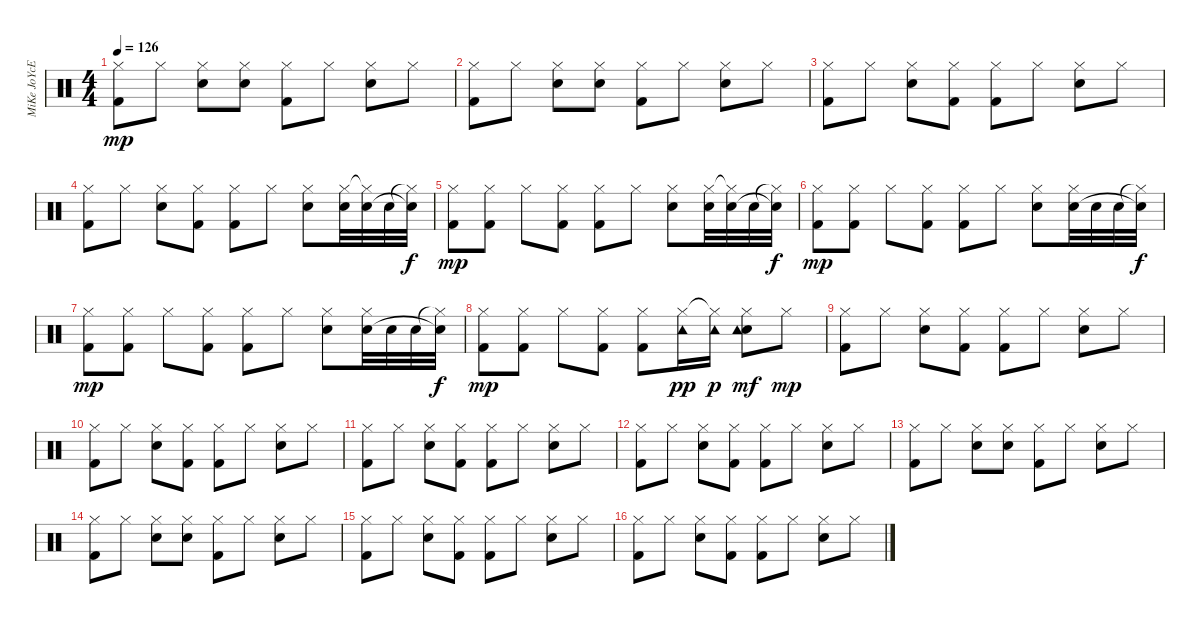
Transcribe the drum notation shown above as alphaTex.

\track ("MiKe JoYcE" "MiKe JoYcE") {instrument percussion}
\staff {score}
\articulation defaults
\ts (4 4)
\tempo 126
\clef neutral
\ks c
("Hi-Hat (closed)" "Kick (hit) 2").8{dy mp} "Hi-Hat (closed)".8 ("Hi-Hat (closed)" "Electric Snare (hit)").8 ("Hi-Hat (closed)" "Electric Snare (hit)").8 ("Hi-Hat (closed)" "Kick (hit) 2").8 "Hi-Hat (closed)".8 ("Hi-Hat (closed)" "Electric Snare (hit)").8 "Hi-Hat (closed)".8 |
("Hi-Hat (closed)" "Kick (hit) 2").8 "Hi-Hat (closed)".8 ("Hi-Hat (closed)" "Electric Snare (hit)").8 ("Hi-Hat (closed)" "Electric Snare (hit)").8 ("Hi-Hat (closed)" "Kick (hit) 2").8 "Hi-Hat (closed)".8 ("Hi-Hat (closed)" "Electric Snare (hit)").8 "Hi-Hat (closed)".8 |
("Hi-Hat (closed)" "Kick (hit) 2").8 "Hi-Hat (closed)".8 ("Hi-Hat (closed)" "Electric Snare (hit)").8 ("Hi-Hat (closed)" "Kick (hit) 2").8 ("Hi-Hat (closed)" "Kick (hit) 2").8 "Hi-Hat (closed)".8 ("Hi-Hat (closed)" "Electric Snare (hit)").8 "Hi-Hat (closed)".8 |
("Hi-Hat (closed)" "Kick (hit) 2").8 "Hi-Hat (closed)".8 ("Hi-Hat (closed)" "Electric Snare (hit)").8 ("Hi-Hat (closed)" "Kick (hit) 2").8 ("Hi-Hat (closed)" "Kick (hit) 2").8 "Hi-Hat (closed)".8 ("Hi-Hat (closed)" "Electric Snare (hit)").8 ("Hi-Hat (closed)" "Electric Snare (hit)").32 ("Hi-Hat (closed)"{t} "Electric Snare (hit)").32 "Electric Snare (hit)".32 ("Hi-Hat (closed)"{t} "Electric Snare (hit)"{t}).32{dy f} |
("Hi-Hat (closed)" "Kick (hit) 2").8{dy mp} ("Hi-Hat (closed)" "Kick (hit) 2").8 "Hi-Hat (closed)".8 ("Hi-Hat (closed)" "Kick (hit) 2").8 ("Hi-Hat (closed)" "Kick (hit) 2").8 "Hi-Hat (closed)".8 ("Hi-Hat (closed)" "Electric Snare (hit)").8 ("Hi-Hat (closed)" "Electric Snare (hit)").32 ("Hi-Hat (closed)"{t} "Electric Snare (hit)").32 "Electric Snare (hit)".32 ("Hi-Hat (closed)"{t} "Electric Snare (hit)"{t}).32{dy f} |
("Hi-Hat (closed)" "Kick (hit) 2").8{dy mp} ("Hi-Hat (closed)" "Kick (hit) 2").8 "Hi-Hat (closed)".8 ("Hi-Hat (closed)" "Kick (hit) 2").8 ("Hi-Hat (closed)" "Kick (hit) 2").8 "Hi-Hat (closed)".8 ("Hi-Hat (closed)" "Electric Snare (hit)").8 ("Hi-Hat (closed)" "Electric Snare (hit)").32 "Electric Snare (hit)".32 "Electric Snare (hit)".32 ("Hi-Hat (closed)"{t} "Electric Snare (hit)"{t}).32{dy f} |
("Hi-Hat (closed)" "Kick (hit) 2").8{dy mp} ("Hi-Hat (closed)" "Kick (hit) 2").8 "Hi-Hat (closed)".8 ("Hi-Hat (closed)" "Kick (hit) 2").8 ("Hi-Hat (closed)" "Kick (hit) 2").8 "Hi-Hat (closed)".8 ("Hi-Hat (closed)" "Electric Snare (hit)").8 ("Hi-Hat (closed)" "Electric Snare (hit)").32 "Electric Snare (hit)".32 "Electric Snare (hit)".32 ("Hi-Hat (closed)"{t} "Electric Snare (hit)"{t}).32{dy f} |
("Hi-Hat (closed)" "Kick (hit) 2").8{dy mp} ("Hi-Hat (closed)" "Kick (hit) 2").8 "Hi-Hat (closed)".8 ("Hi-Hat (closed)" "Kick (hit) 2").8 ("Hi-Hat (closed)" "Kick (hit) 2").8 ("Hi-Hat (closed)" "Tambourine (hit)").16{dy pp} ("Hi-Hat (closed)"{t} "Tambourine (hit)").16{dy p} ("Hi-Hat (closed)" "Electric Snare (hit)" "Tambourine (hit)").8{dy mf} "Hi-Hat (closed)".8{dy mp} |
("Hi-Hat (closed)" "Kick (hit) 2").8 "Hi-Hat (closed)".8 ("Hi-Hat (closed)" "Electric Snare (hit)").8 ("Hi-Hat (closed)" "Kick (hit) 2").8 ("Hi-Hat (closed)" "Kick (hit) 2").8 "Hi-Hat (closed)".8 ("Hi-Hat (closed)" "Electric Snare (hit)").8 "Hi-Hat (closed)".8 |
("Hi-Hat (closed)" "Kick (hit) 2").8 "Hi-Hat (closed)".8 ("Hi-Hat (closed)" "Electric Snare (hit)").8 ("Hi-Hat (closed)" "Kick (hit) 2").8 ("Hi-Hat (closed)" "Kick (hit) 2").8 "Hi-Hat (closed)".8 ("Hi-Hat (closed)" "Electric Snare (hit)").8 "Hi-Hat (closed)".8 |
("Hi-Hat (closed)" "Kick (hit) 2").8 "Hi-Hat (closed)".8 ("Hi-Hat (closed)" "Electric Snare (hit)").8 ("Hi-Hat (closed)" "Kick (hit) 2").8 ("Hi-Hat (closed)" "Kick (hit) 2").8 "Hi-Hat (closed)".8 ("Hi-Hat (closed)" "Electric Snare (hit)").8 "Hi-Hat (closed)".8 |
("Hi-Hat (closed)" "Kick (hit) 2").8 "Hi-Hat (closed)".8 ("Hi-Hat (closed)" "Electric Snare (hit)").8 ("Hi-Hat (closed)" "Kick (hit) 2").8 ("Hi-Hat (closed)" "Kick (hit) 2").8 "Hi-Hat (closed)".8 ("Hi-Hat (closed)" "Electric Snare (hit)").8 "Hi-Hat (closed)".8 |
("Hi-Hat (closed)" "Kick (hit) 2").8 "Hi-Hat (closed)".8 ("Hi-Hat (closed)" "Electric Snare (hit)").8 ("Hi-Hat (closed)" "Electric Snare (hit)").8 ("Hi-Hat (closed)" "Kick (hit) 2").8 "Hi-Hat (closed)".8 ("Hi-Hat (closed)" "Electric Snare (hit)").8 "Hi-Hat (closed)".8 |
("Hi-Hat (closed)" "Kick (hit) 2").8 "Hi-Hat (closed)".8 ("Hi-Hat (closed)" "Electric Snare (hit)").8 ("Hi-Hat (closed)" "Electric Snare (hit)").8 ("Hi-Hat (closed)" "Kick (hit) 2").8 "Hi-Hat (closed)".8 ("Hi-Hat (closed)" "Electric Snare (hit)").8 "Hi-Hat (closed)".8 |
("Hi-Hat (closed)" "Kick (hit) 2").8 "Hi-Hat (closed)".8 ("Hi-Hat (closed)" "Electric Snare (hit)").8 ("Hi-Hat (closed)" "Kick (hit) 2").8 ("Hi-Hat (closed)" "Kick (hit) 2").8 "Hi-Hat (closed)".8 ("Hi-Hat (closed)" "Electric Snare (hit)").8 "Hi-Hat (closed)".8 |
("Hi-Hat (closed)" "Kick (hit) 2").8 "Hi-Hat (closed)".8 ("Hi-Hat (closed)" "Electric Snare (hit)").8 ("Hi-Hat (closed)" "Kick (hit) 2").8 ("Hi-Hat (closed)" "Kick (hit) 2").8 "Hi-Hat (closed)".8 ("Hi-Hat (closed)" "Electric Snare (hit)").8 "Hi-Hat (closed)".8
